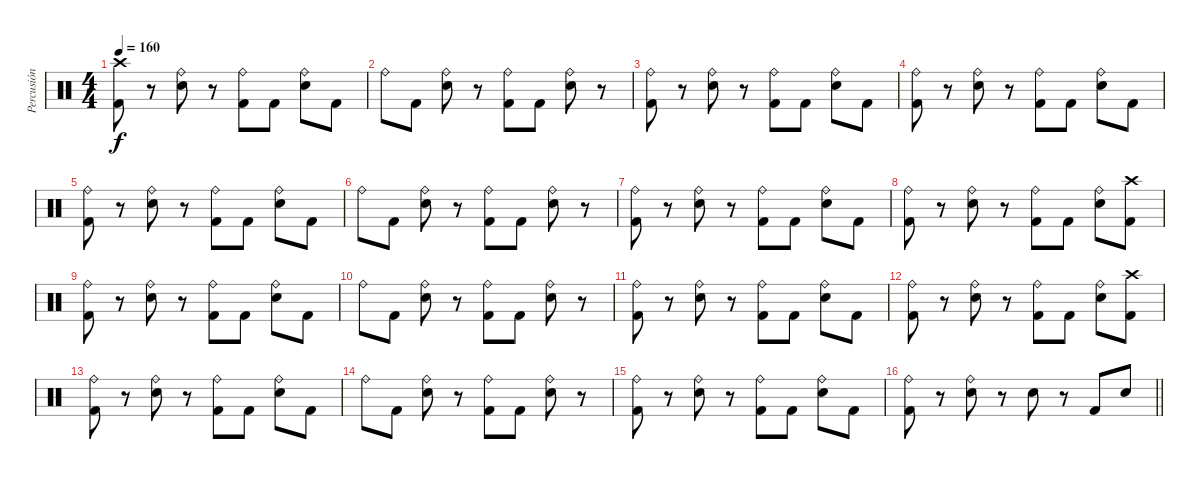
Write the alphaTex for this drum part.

\track ("Percusión (Nevi)" "Percusión ") {instrument percussion}
\staff {score}
\articulation defaults
\ts (4 4)
\tempo 160
\clef neutral
\ks c
("Kick (hit) 2" "Crash high (hit)").8{dy f} r.8 ("Ride (bell)" "Snare (hit) 2").8 r.8 ("Kick (hit) 2" "Ride (bell)").8 "Kick (hit) 2".8 ("Ride (bell)" "Snare (hit) 2").8 "Kick (hit) 2".8 |
"Ride (bell)".8 "Kick (hit) 2".8 ("Ride (bell)" "Snare (hit) 2").8 r.8 ("Kick (hit) 2" "Ride (bell)").8 "Kick (hit) 2".8 ("Ride (bell)" "Snare (hit) 2").8 r.8 |
("Kick (hit) 2" "Ride (bell)").8 r.8 ("Ride (bell)" "Snare (hit) 2").8 r.8 ("Kick (hit) 2" "Ride (bell)").8 "Kick (hit) 2".8 ("Ride (bell)" "Snare (hit) 2").8 "Kick (hit) 2".8 |
("Kick (hit) 2" "Ride (bell)").8 r.8 ("Ride (bell)" "Snare (hit) 2").8 r.8 ("Kick (hit) 2" "Ride (bell)").8 "Kick (hit) 2".8 ("Ride (bell)" "Snare (hit) 2").8 "Kick (hit) 2".8 |
("Kick (hit) 2" "Ride (bell)").8 r.8 ("Ride (bell)" "Snare (hit) 2").8 r.8 ("Kick (hit) 2" "Ride (bell)").8 "Kick (hit) 2".8 ("Ride (bell)" "Snare (hit) 2").8 "Kick (hit) 2".8 |
"Ride (bell)".8 "Kick (hit) 2".8 ("Ride (bell)" "Snare (hit) 2").8 r.8 ("Kick (hit) 2" "Ride (bell)").8 "Kick (hit) 2".8 ("Ride (bell)" "Snare (hit) 2").8 r.8 |
("Kick (hit) 2" "Ride (bell)").8 r.8 ("Ride (bell)" "Snare (hit) 2").8 r.8 ("Kick (hit) 2" "Ride (bell)").8 "Kick (hit) 2".8 ("Ride (bell)" "Snare (hit) 2").8 "Kick (hit) 2".8 |
("Kick (hit) 2" "Ride (bell)").8 r.8 ("Ride (bell)" "Snare (hit) 2").8 r.8 ("Kick (hit) 2" "Ride (bell)").8 "Kick (hit) 2".8 ("Ride (bell)" "Snare (hit) 2").8 ("Kick (hit) 2" "Crash high (hit)").8 |
("Kick (hit) 2" "Ride (bell)").8 r.8 ("Ride (bell)" "Snare (hit) 2").8 r.8 ("Kick (hit) 2" "Ride (bell)").8 "Kick (hit) 2".8 ("Ride (bell)" "Snare (hit) 2").8 "Kick (hit) 2".8 |
"Ride (bell)".8 "Kick (hit) 2".8 ("Ride (bell)" "Snare (hit) 2").8 r.8 ("Kick (hit) 2" "Ride (bell)").8 "Kick (hit) 2".8 ("Ride (bell)" "Snare (hit) 2").8 r.8 |
("Kick (hit) 2" "Ride (bell)").8 r.8 ("Ride (bell)" "Snare (hit) 2").8 r.8 ("Kick (hit) 2" "Ride (bell)").8 "Kick (hit) 2".8 ("Ride (bell)" "Snare (hit) 2").8 "Kick (hit) 2".8 |
("Kick (hit) 2" "Ride (bell)").8 r.8 ("Ride (bell)" "Snare (hit) 2").8 r.8 ("Kick (hit) 2" "Ride (bell)").8 "Kick (hit) 2".8 ("Ride (bell)" "Snare (hit) 2").8 ("Kick (hit) 2" "Crash high (hit)").8 |
("Kick (hit) 2" "Ride (bell)").8 r.8 ("Ride (bell)" "Snare (hit) 2").8 r.8 ("Kick (hit) 2" "Ride (bell)").8 "Kick (hit) 2".8 ("Ride (bell)" "Snare (hit) 2").8 "Kick (hit) 2".8 |
"Ride (bell)".8 "Kick (hit) 2".8 ("Ride (bell)" "Snare (hit) 2").8 r.8 ("Kick (hit) 2" "Ride (bell)").8 "Kick (hit) 2".8 ("Ride (bell)" "Snare (hit) 2").8 r.8 |
("Kick (hit) 2" "Ride (bell)").8 r.8 ("Ride (bell)" "Snare (hit) 2").8 r.8 ("Kick (hit) 2" "Ride (bell)").8 "Kick (hit) 2".8 ("Ride (bell)" "Snare (hit) 2").8 "Kick (hit) 2".8 |
\barLineRight lightlight
("Kick (hit) 2" "Ride (bell)").8 r.8 ("Ride (bell)" "Snare (hit) 2").8 r.8 "Snare (hit) 2".8 r.8 "Kick (hit) 2".8 "Snare (hit) 2".8
